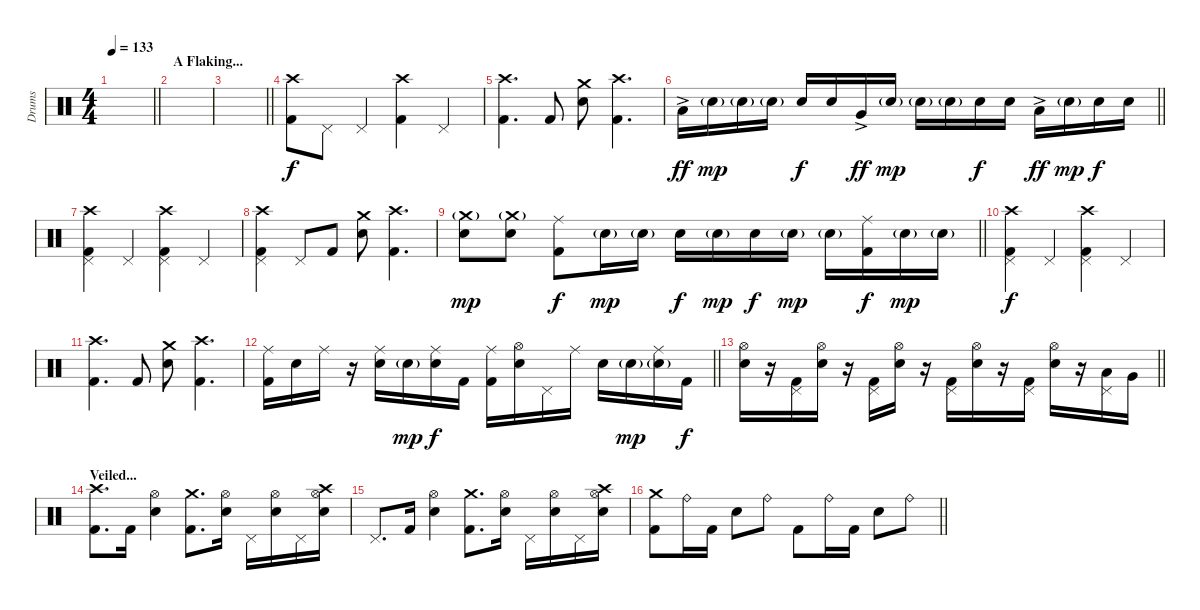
\track ("Drums" "Drums") {instrument percussion}
\staff {score}
\articulation defaults
\ts (4 4)
\tempo 133
\clef neutral
\barLineRight lightlight
\ks c
|
\section ("" "A Flaking...")
|
\barLineRight lightlight
|
\section ("" "")
("Crash high (hit)" "Kick (hit) 2").8{dy f} "Pedal Hi-Hat (hit)".8 "Pedal Hi-Hat (hit)".4 ("Crash high (hit)" "Kick (hit) 2").4 "Pedal Hi-Hat (hit)".4 |
("Crash high (hit)" "Kick (hit) 2").4{d} "Kick (hit) 2".8 ("Crash medium (hit)" "Snare (hit) 2").8 ("Crash high (hit)" "Kick (hit) 2").4{d} |
\barLineRight lightlight "Low Tom (hit)"{ac}.16{dy ff} "Snare (hit) 2"{g}.16{dy mp} "Snare (hit) 2"{g}.16 "Snare (hit) 2"{g}.16 "Electric Snare (hit)".16{dy f} "Electric Snare (hit)".16 "Very Low Tom (hit)"{ac}.16{dy ff} "Snare (hit) 2"{g}.16{dy mp} "Snare (hit) 2"{g}.16 "Snare (hit) 2"{g}.16 "Electric Snare (hit)".16{dy f} "Electric Snare (hit)".16 "Low Tom (hit)"{ac}.16{dy ff} "Snare (hit) 2"{g}.16{dy mp} "Electric Snare (hit)".16{dy f} "Electric Snare (hit)".16
|
\section ("" "")
("Crash high (hit)" "Pedal Hi-Hat (hit)" "Kick (hit) 2").4 "Pedal Hi-Hat (hit)".4 ("Crash high (hit)" "Pedal Hi-Hat (hit)" "Kick (hit) 2").4 "Pedal Hi-Hat (hit)".4 |
("Crash high (hit)" "Pedal Hi-Hat (hit)" "Kick (hit) 2").4 "Pedal Hi-Hat (hit)".8 "Kick (hit) 2".8 ("Crash medium (hit)" "Snare (hit) 2").8 ("Crash high (hit)" "Kick (hit) 2").4{d} |
\barLineRight lightlight
("Crash medium (hit)"{g} "Snare (hit) 2").8{dy mp} ("Crash medium (hit)"{g} "Snare (hit) 2").8 ("Ride (middle)" "Kick (hit) 2").8{dy f} "Snare (hit) 2"{g}.16{dy mp} "Snare (hit) 2"{g}.16 "Electric Snare (hit)".16{dy f} "Snare (hit) 2"{g}.16{dy mp} "Electric Snare (hit)".16{dy f} "Snare (hit) 2"{g}.16{dy mp} "Snare (hit) 2"{g}.16 ("Ride (middle)" "Kick (hit) 2").16{dy f} "Snare (hit) 2"{g}.16{dy mp} "Snare (hit) 2"{g}.16 |
\section ("" "")
("Crash high (hit)" "Pedal Hi-Hat (hit)" "Kick (hit) 2").4{dy f} "Pedal Hi-Hat (hit)".4 ("Crash high (hit)" "Pedal Hi-Hat (hit)" "Kick (hit) 2").4 "Pedal Hi-Hat (hit)".4 |
("Crash high (hit)" "Kick (hit) 2").4{d} "Kick (hit) 2".8 ("Crash medium (hit)" "Snare (hit) 2").8 ("Crash high (hit)" "Kick (hit) 2").4{d} |
\barLineRight lightlight
("Ride (middle)" "Kick (hit) 2").16 "Snare (hit) 2".16 "Ride (middle)".16 r.16 ("Ride (middle)" "Snare (hit) 2").16 "Electric Snare (hit)"{g}.16{dy mp} ("Ride (middle)" "Snare (hit) 2").16{dy f} "Kick (hit) 2".16 ("Ride (middle)" "Kick (hit) 2").16 ("Hi-Hat (open)" "Snare (hit) 2").16 "Pedal Hi-Hat (hit)".16 "Ride (middle)".16 "Snare (hit) 2".16 "Snare (hit) 2"{g}.16{dy mp} ("Ride (middle)" "Electric Snare (hit)"{g}).16 "Kick (hit) 2".16{dy f} |
\barLineRight lightlight
("Hi-Hat (open)" "Snare (hit) 2").16 r.16 ("Pedal Hi-Hat (hit)" "Kick (hit) 2").16 ("Hi-Hat (open)" "Snare (hit) 2").16 r.16 ("Pedal Hi-Hat (hit)" "Kick (hit) 2").16 ("Hi-Hat (open)" "Snare (hit) 2").16 r.16 ("Pedal Hi-Hat (hit)" "Kick (hit) 2").16 ("Hi-Hat (open)" "Snare (hit) 2").16 r.16 ("Pedal Hi-Hat (hit)" "Kick (hit) 2").16 ("Hi-Hat (open)" "Snare (hit) 2").16 r.16 ("Low Tom (hit)" "Pedal Hi-Hat (hit)").16 "Very Low Tom (hit)".16 |
\section ("" "Veiled...")
("Crash high (hit)" "Kick (hit) 2").8{d} "Kick (hit) 2".16 ("Hi-Hat (open)" "Snare (hit) 2").4 ("Crash medium (hit)" "Kick (hit) 2").8{d} ("Hi-Hat (open)" "Snare (hit) 2").16 "Pedal Hi-Hat (hit)".16 ("Hi-Hat (open)" "Snare (hit) 2").16 "Pedal Hi-Hat (hit)".16 ("Crash high (hit)" "Hi-Hat (open)" "Snare (hit) 2").16 |
"Pedal Hi-Hat (hit)".8{d} "Kick (hit) 2".16 ("Hi-Hat (open)" "Snare (hit) 2").4 ("Crash medium (hit)" "Kick (hit) 2").8{d} ("Hi-Hat (open)" "Snare (hit) 2").16 "Pedal Hi-Hat (hit)".16 ("Hi-Hat (open)" "Snare (hit) 2").16 "Pedal Hi-Hat (hit)".16 ("Crash high (hit)" "Hi-Hat (open)" "Snare (hit) 2").16 |
\barLineRight lightlight
("Crash medium (hit)" "Kick (hit) 2").8 "Ride (bell)".16 "Kick (hit) 2".16 "Snare (hit) 2".8 "Ride (bell)".8 "Kick (hit) 2".8 "Ride (bell)".16 "Kick (hit) 2".16 "Snare (hit) 2".8 "Ride (bell)".8
